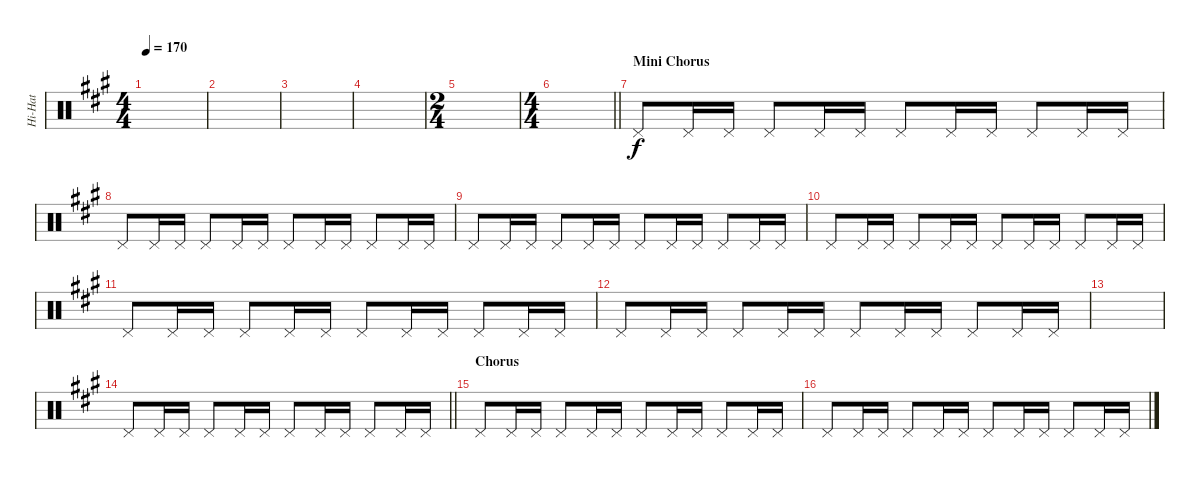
\track ("Hi-Hat" "Hi-Hat") {instrument percussion}
\staff {score}
\articulation defaults
\ts (4 4)
\tempo 170
\clef neutral
\ks a
|
|
|
|
\ts (2 4)
|
\ts (4 4)
\barLineRight lightlight
|
\section ("" "Mini Chorus")
"Pedal Hi-Hat (hit)".8 "Pedal Hi-Hat (hit)".16 "Pedal Hi-Hat (hit)".16 "Pedal Hi-Hat (hit)".8 "Pedal Hi-Hat (hit)".16 "Pedal Hi-Hat (hit)".16 "Pedal Hi-Hat (hit)".8 "Pedal Hi-Hat (hit)".16 "Pedal Hi-Hat (hit)".16 "Pedal Hi-Hat (hit)".8 "Pedal Hi-Hat (hit)".16 "Pedal Hi-Hat (hit)".16 |
"Pedal Hi-Hat (hit)".8 "Pedal Hi-Hat (hit)".16 "Pedal Hi-Hat (hit)".16 "Pedal Hi-Hat (hit)".8 "Pedal Hi-Hat (hit)".16 "Pedal Hi-Hat (hit)".16 "Pedal Hi-Hat (hit)".8 "Pedal Hi-Hat (hit)".16 "Pedal Hi-Hat (hit)".16 "Pedal Hi-Hat (hit)".8 "Pedal Hi-Hat (hit)".16 "Pedal Hi-Hat (hit)".16 |
"Pedal Hi-Hat (hit)".8 "Pedal Hi-Hat (hit)".16 "Pedal Hi-Hat (hit)".16 "Pedal Hi-Hat (hit)".8 "Pedal Hi-Hat (hit)".16 "Pedal Hi-Hat (hit)".16 "Pedal Hi-Hat (hit)".8 "Pedal Hi-Hat (hit)".16 "Pedal Hi-Hat (hit)".16 "Pedal Hi-Hat (hit)".8 "Pedal Hi-Hat (hit)".16 "Pedal Hi-Hat (hit)".16 |
"Pedal Hi-Hat (hit)".8 "Pedal Hi-Hat (hit)".16 "Pedal Hi-Hat (hit)".16 "Pedal Hi-Hat (hit)".8 "Pedal Hi-Hat (hit)".16 "Pedal Hi-Hat (hit)".16 "Pedal Hi-Hat (hit)".8 "Pedal Hi-Hat (hit)".16 "Pedal Hi-Hat (hit)".16 "Pedal Hi-Hat (hit)".8 "Pedal Hi-Hat (hit)".16 "Pedal Hi-Hat (hit)".16 |
"Pedal Hi-Hat (hit)".8 "Pedal Hi-Hat (hit)".16 "Pedal Hi-Hat (hit)".16 "Pedal Hi-Hat (hit)".8 "Pedal Hi-Hat (hit)".16 "Pedal Hi-Hat (hit)".16 "Pedal Hi-Hat (hit)".8 "Pedal Hi-Hat (hit)".16 "Pedal Hi-Hat (hit)".16 "Pedal Hi-Hat (hit)".8 "Pedal Hi-Hat (hit)".16 "Pedal Hi-Hat (hit)".16 |
"Pedal Hi-Hat (hit)".8 "Pedal Hi-Hat (hit)".16 "Pedal Hi-Hat (hit)".16 "Pedal Hi-Hat (hit)".8 "Pedal Hi-Hat (hit)".16 "Pedal Hi-Hat (hit)".16 "Pedal Hi-Hat (hit)".8 "Pedal Hi-Hat (hit)".16 "Pedal Hi-Hat (hit)".16 "Pedal Hi-Hat (hit)".8 "Pedal Hi-Hat (hit)".16 "Pedal Hi-Hat (hit)".16 |
|
\barLineRight lightlight "Pedal Hi-Hat (hit)".8 "Pedal Hi-Hat (hit)".16 "Pedal Hi-Hat (hit)".16 "Pedal Hi-Hat (hit)".8 "Pedal Hi-Hat (hit)".16 "Pedal Hi-Hat (hit)".16 "Pedal Hi-Hat (hit)".8 "Pedal Hi-Hat (hit)".16 "Pedal Hi-Hat (hit)".16 "Pedal Hi-Hat (hit)".8 "Pedal Hi-Hat (hit)".16 "Pedal Hi-Hat (hit)".16
|
\section ("" "Chorus")
"Pedal Hi-Hat (hit)".8 "Pedal Hi-Hat (hit)".16 "Pedal Hi-Hat (hit)".16 "Pedal Hi-Hat (hit)".8 "Pedal Hi-Hat (hit)".16 "Pedal Hi-Hat (hit)".16 "Pedal Hi-Hat (hit)".8 "Pedal Hi-Hat (hit)".16 "Pedal Hi-Hat (hit)".16 "Pedal Hi-Hat (hit)".8 "Pedal Hi-Hat (hit)".16 "Pedal Hi-Hat (hit)".16 |
"Pedal Hi-Hat (hit)".8 "Pedal Hi-Hat (hit)".16 "Pedal Hi-Hat (hit)".16 "Pedal Hi-Hat (hit)".8 "Pedal Hi-Hat (hit)".16 "Pedal Hi-Hat (hit)".16 "Pedal Hi-Hat (hit)".8 "Pedal Hi-Hat (hit)".16 "Pedal Hi-Hat (hit)".16 "Pedal Hi-Hat (hit)".8 "Pedal Hi-Hat (hit)".16 "Pedal Hi-Hat (hit)".16
